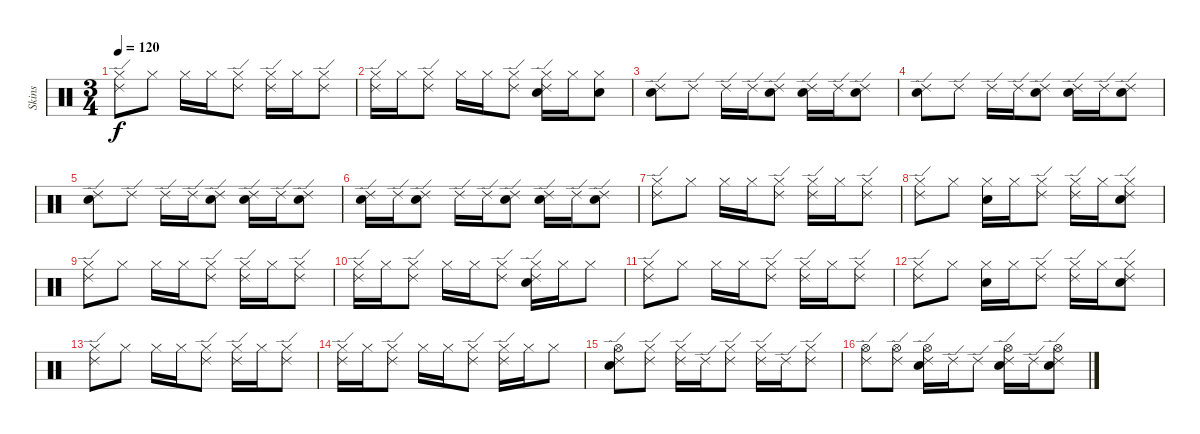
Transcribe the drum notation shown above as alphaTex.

\track ("Skins" "Skins") {instrument percussion}
\staff {score}
\articulation defaults
\ts (3 4)
\tempo 120
\clef neutral
\ks c
("Ride (edge) 2" "Hi-Hat (closed)").8{dy f} "Hi-Hat (closed)".8 "Hi-Hat (closed)".16 "Hi-Hat (closed)".16 ("Ride (edge) 2" "Hi-Hat (closed)").8 ("Ride (edge) 2" "Hi-Hat (closed)").16 "Hi-Hat (closed)".16 ("Ride (edge) 2" "Hi-Hat (closed)").8 |
("Ride (edge) 2" "Hi-Hat (closed)").16 "Hi-Hat (closed)".16 ("Ride (edge) 2" "Hi-Hat (closed)").8 "Hi-Hat (closed)".16 "Hi-Hat (closed)".16 ("Ride (edge) 2" "Hi-Hat (closed)").8 ("Ride (edge) 2" "Hi-Hat (closed)" "Electric Snare (hit)").16 "Hi-Hat (closed)".16 ("Hi-Hat (closed)" "Electric Snare (hit)").8 |
("Electric Snare (hit)" "Ride (edge) 2").8 "Ride (edge) 2".8 "Ride (edge) 2".16 "Ride (edge) 2".16 ("Electric Snare (hit)" "Ride (edge) 2").8 ("Electric Snare (hit)" "Ride (edge) 2").16 "Ride (edge) 2".16 ("Electric Snare (hit)" "Ride (edge) 2").8 |
("Electric Snare (hit)" "Ride (edge) 2").8 "Ride (edge) 2".8 "Ride (edge) 2".16 "Ride (edge) 2".16 ("Electric Snare (hit)" "Ride (edge) 2").8 ("Electric Snare (hit)" "Ride (edge) 2").16 "Ride (edge) 2".16 ("Electric Snare (hit)" "Ride (edge) 2").8 |
("Electric Snare (hit)" "Ride (edge) 2").8 "Ride (edge) 2".8 "Ride (edge) 2".16 "Ride (edge) 2".16 ("Electric Snare (hit)" "Ride (edge) 2").8 ("Electric Snare (hit)" "Ride (edge) 2").16 "Ride (edge) 2".16 ("Electric Snare (hit)" "Ride (edge) 2").8 |
("Electric Snare (hit)" "Ride (edge) 2").16 "Ride (edge) 2".16 ("Electric Snare (hit)" "Ride (edge) 2").8 "Ride (edge) 2".16 "Ride (edge) 2".16 ("Electric Snare (hit)" "Ride (edge) 2").8 ("Electric Snare (hit)" "Ride (edge) 2").16 "Ride (edge) 2".16 ("Electric Snare (hit)" "Ride (edge) 2").8 |
("Ride (edge) 2" "Hi-Hat (closed)").8 "Hi-Hat (closed)".8 "Hi-Hat (closed)".16 "Hi-Hat (closed)".16 ("Ride (edge) 2" "Hi-Hat (closed)").8 ("Ride (edge) 2" "Hi-Hat (closed)").16 "Hi-Hat (closed)".16 ("Ride (edge) 2" "Hi-Hat (closed)").8 |
("Ride (edge) 2" "Hi-Hat (closed)").8 "Hi-Hat (closed)".8 ("Hi-Hat (closed)" "Electric Snare (hit)").16 "Hi-Hat (closed)".16 ("Ride (edge) 2" "Hi-Hat (closed)").8 ("Ride (edge) 2" "Hi-Hat (closed)").16 "Hi-Hat (closed)".16 ("Ride (edge) 2" "Hi-Hat (closed)" "Electric Snare (hit)").8 |
("Ride (edge) 2" "Hi-Hat (closed)").8 "Hi-Hat (closed)".8 "Hi-Hat (closed)".16 "Hi-Hat (closed)".16 ("Ride (edge) 2" "Hi-Hat (closed)").8 ("Ride (edge) 2" "Hi-Hat (closed)").16 "Hi-Hat (closed)".16 ("Ride (edge) 2" "Hi-Hat (closed)").8 |
("Ride (edge) 2" "Hi-Hat (closed)").16 "Hi-Hat (closed)".16 ("Ride (edge) 2" "Hi-Hat (closed)").8 "Hi-Hat (closed)".16 "Hi-Hat (closed)".16 ("Ride (edge) 2" "Hi-Hat (closed)").8 ("Ride (edge) 2" "Hi-Hat (closed)" "Electric Snare (hit)").16 "Hi-Hat (closed)".16 "Hi-Hat (closed)".8 |
("Ride (edge) 2" "Hi-Hat (closed)").8 "Hi-Hat (closed)".8 "Hi-Hat (closed)".16 "Hi-Hat (closed)".16 ("Ride (edge) 2" "Hi-Hat (closed)").8 ("Ride (edge) 2" "Hi-Hat (closed)").16 "Hi-Hat (closed)".16 ("Ride (edge) 2" "Hi-Hat (closed)").8 |
("Ride (edge) 2" "Hi-Hat (closed)").8 "Hi-Hat (closed)".8 ("Hi-Hat (closed)" "Electric Snare (hit)").16 "Hi-Hat (closed)".16 ("Ride (edge) 2" "Hi-Hat (closed)").8 ("Ride (edge) 2" "Hi-Hat (closed)").16 "Hi-Hat (closed)".16 ("Ride (edge) 2" "Hi-Hat (closed)" "Electric Snare (hit)").8 |
("Ride (edge) 2" "Hi-Hat (closed)").8 "Hi-Hat (closed)".8 "Hi-Hat (closed)".16 "Hi-Hat (closed)".16 ("Ride (edge) 2" "Hi-Hat (closed)").8 ("Ride (edge) 2" "Hi-Hat (closed)").16 "Hi-Hat (closed)".16 ("Ride (edge) 2" "Hi-Hat (closed)").8 |
("Ride (edge) 2" "Hi-Hat (closed)").16 "Hi-Hat (closed)".16 ("Ride (edge) 2" "Hi-Hat (closed)").8 "Hi-Hat (closed)".16 "Hi-Hat (closed)".16 ("Ride (edge) 2" "Hi-Hat (closed)").8 ("Ride (edge) 2" "Hi-Hat (closed)").16 "Hi-Hat (closed)".16 "Hi-Hat (closed)".8 |
("Electric Snare (hit)" "Ride (edge) 2" "Hi-Hat (open)").8 ("Ride (edge) 2" "Hi-Hat (closed)").8 ("Ride (edge) 2" "Hi-Hat (closed)").16 "Ride (edge) 2".16 ("Ride (edge) 2" "Hi-Hat (closed)").8 ("Ride (edge) 2" "Hi-Hat (closed)").16 "Ride (edge) 2".16 ("Ride (edge) 2" "Hi-Hat (closed)").8 |
("Ride (edge) 2" "Hi-Hat (open)").8 ("Ride (edge) 2" "Hi-Hat (open)").8 ("Electric Snare (hit)" "Ride (edge) 2" "Hi-Hat (open)").16 "Ride (edge) 2".16 "Ride (edge) 2".8 ("Electric Snare (hit)" "Ride (edge) 2" "Hi-Hat (open)").16 "Ride (edge) 2".16 ("Electric Snare (hit)" "Ride (edge) 2" "Hi-Hat (open)").8
